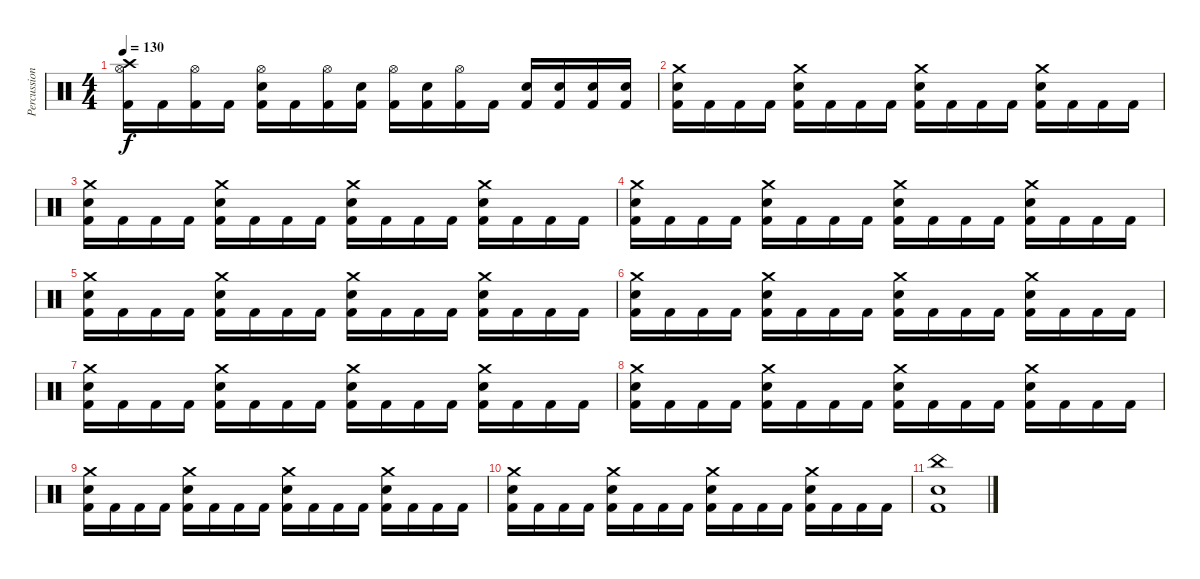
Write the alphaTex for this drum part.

\track ("Percussions" "Percussion") {instrument percussion}
\staff {score}
\articulation defaults
\ts (4 4)
\tempo 130
\clef neutral
\ks c
("Crash high (hit)" "Hi-Hat (open)" "Kick (hit) 2").16{dy f} "Kick (hit) 2".16 ("Hi-Hat (open)" "Kick (hit) 2").16 "Kick (hit) 2".16 ("Electric Snare (hit)" "Hi-Hat (open)" "Kick (hit) 2").16 "Kick (hit) 2".16 ("Hi-Hat (open)" "Kick (hit) 2").16 ("Electric Snare (hit)" "Kick (hit) 2").16 ("Hi-Hat (open)" "Kick (hit) 2").16 ("Electric Snare (hit)" "Kick (hit) 2").16 ("Hi-Hat (open)" "Kick (hit) 2").16 "Kick (hit) 2".16 ("Electric Snare (hit)" "Kick (hit) 2").16 ("Electric Snare (hit)" "Kick (hit) 2").16 ("Electric Snare (hit)" "Kick (hit) 2").16 ("Electric Snare (hit)" "Kick (hit) 2").16 |
("Electric Snare (hit)" "Crash medium (hit)" "Kick (hit) 2").16 "Kick (hit) 2".16 "Kick (hit) 2".16 "Kick (hit) 2".16 ("Electric Snare (hit)" "Crash medium (hit)" "Kick (hit) 2").16 "Kick (hit) 2".16 "Kick (hit) 2".16 "Kick (hit) 2".16 ("Electric Snare (hit)" "Crash medium (hit)" "Kick (hit) 2").16 "Kick (hit) 2".16 "Kick (hit) 2".16 "Kick (hit) 2".16 ("Electric Snare (hit)" "Crash medium (hit)" "Kick (hit) 2").16 "Kick (hit) 2".16 "Kick (hit) 2".16 "Kick (hit) 2".16 |
("Electric Snare (hit)" "Crash medium (hit)" "Kick (hit) 2").16 "Kick (hit) 2".16 "Kick (hit) 2".16 "Kick (hit) 2".16 ("Electric Snare (hit)" "Crash medium (hit)" "Kick (hit) 2").16 "Kick (hit) 2".16 "Kick (hit) 2".16 "Kick (hit) 2".16 ("Electric Snare (hit)" "Crash medium (hit)" "Kick (hit) 2").16 "Kick (hit) 2".16 "Kick (hit) 2".16 "Kick (hit) 2".16 ("Electric Snare (hit)" "Crash medium (hit)" "Kick (hit) 2").16 "Kick (hit) 2".16 "Kick (hit) 2".16 "Kick (hit) 2".16 |
("Electric Snare (hit)" "Crash medium (hit)" "Kick (hit) 2").16 "Kick (hit) 2".16 "Kick (hit) 2".16 "Kick (hit) 2".16 ("Electric Snare (hit)" "Crash medium (hit)" "Kick (hit) 2").16 "Kick (hit) 2".16 "Kick (hit) 2".16 "Kick (hit) 2".16 ("Electric Snare (hit)" "Crash medium (hit)" "Kick (hit) 2").16 "Kick (hit) 2".16 "Kick (hit) 2".16 "Kick (hit) 2".16 ("Electric Snare (hit)" "Crash medium (hit)" "Kick (hit) 2").16 "Kick (hit) 2".16 "Kick (hit) 2".16 "Kick (hit) 2".16 |
("Electric Snare (hit)" "Crash medium (hit)" "Kick (hit) 2").16 "Kick (hit) 2".16 "Kick (hit) 2".16 "Kick (hit) 2".16 ("Electric Snare (hit)" "Crash medium (hit)" "Kick (hit) 2").16 "Kick (hit) 2".16 "Kick (hit) 2".16 "Kick (hit) 2".16 ("Electric Snare (hit)" "Crash medium (hit)" "Kick (hit) 2").16 "Kick (hit) 2".16 "Kick (hit) 2".16 "Kick (hit) 2".16 ("Electric Snare (hit)" "Crash medium (hit)" "Kick (hit) 2").16 "Kick (hit) 2".16 "Kick (hit) 2".16 "Kick (hit) 2".16 |
("Electric Snare (hit)" "Crash medium (hit)" "Kick (hit) 2").16 "Kick (hit) 2".16 "Kick (hit) 2".16 "Kick (hit) 2".16 ("Electric Snare (hit)" "Crash medium (hit)" "Kick (hit) 2").16 "Kick (hit) 2".16 "Kick (hit) 2".16 "Kick (hit) 2".16 ("Electric Snare (hit)" "Crash medium (hit)" "Kick (hit) 2").16 "Kick (hit) 2".16 "Kick (hit) 2".16 "Kick (hit) 2".16 ("Electric Snare (hit)" "Crash medium (hit)" "Kick (hit) 2").16 "Kick (hit) 2".16 "Kick (hit) 2".16 "Kick (hit) 2".16 |
("Electric Snare (hit)" "Crash medium (hit)" "Kick (hit) 2").16 "Kick (hit) 2".16 "Kick (hit) 2".16 "Kick (hit) 2".16 ("Electric Snare (hit)" "Crash medium (hit)" "Kick (hit) 2").16 "Kick (hit) 2".16 "Kick (hit) 2".16 "Kick (hit) 2".16 ("Electric Snare (hit)" "Crash medium (hit)" "Kick (hit) 2").16 "Kick (hit) 2".16 "Kick (hit) 2".16 "Kick (hit) 2".16 ("Electric Snare (hit)" "Crash medium (hit)" "Kick (hit) 2").16 "Kick (hit) 2".16 "Kick (hit) 2".16 "Kick (hit) 2".16 |
("Electric Snare (hit)" "Crash medium (hit)" "Kick (hit) 2").16 "Kick (hit) 2".16 "Kick (hit) 2".16 "Kick (hit) 2".16 ("Electric Snare (hit)" "Crash medium (hit)" "Kick (hit) 2").16 "Kick (hit) 2".16 "Kick (hit) 2".16 "Kick (hit) 2".16 ("Electric Snare (hit)" "Crash medium (hit)" "Kick (hit) 2").16 "Kick (hit) 2".16 "Kick (hit) 2".16 "Kick (hit) 2".16 ("Electric Snare (hit)" "Crash medium (hit)" "Kick (hit) 2").16 "Kick (hit) 2".16 "Kick (hit) 2".16 "Kick (hit) 2".16 |
("Electric Snare (hit)" "Crash medium (hit)" "Kick (hit) 2").16 "Kick (hit) 2".16 "Kick (hit) 2".16 "Kick (hit) 2".16 ("Electric Snare (hit)" "Crash medium (hit)" "Kick (hit) 2").16 "Kick (hit) 2".16 "Kick (hit) 2".16 "Kick (hit) 2".16 ("Electric Snare (hit)" "Crash medium (hit)" "Kick (hit) 2").16 "Kick (hit) 2".16 "Kick (hit) 2".16 "Kick (hit) 2".16 ("Electric Snare (hit)" "Crash medium (hit)" "Kick (hit) 2").16 "Kick (hit) 2".16 "Kick (hit) 2".16 "Kick (hit) 2".16 |
("Electric Snare (hit)" "Crash medium (hit)" "Kick (hit) 2").16 "Kick (hit) 2".16 "Kick (hit) 2".16 "Kick (hit) 2".16 ("Electric Snare (hit)" "Crash medium (hit)" "Kick (hit) 2").16 "Kick (hit) 2".16 "Kick (hit) 2".16 "Kick (hit) 2".16 ("Electric Snare (hit)" "Crash medium (hit)" "Kick (hit) 2").16 "Kick (hit) 2".16 "Kick (hit) 2".16 "Kick (hit) 2".16 ("Electric Snare (hit)" "Crash medium (hit)" "Kick (hit) 2").16 "Kick (hit) 2".16 "Kick (hit) 2".16 "Kick (hit) 2".16 |
("China (hit)" "Electric Snare (hit)" "Kick (hit) 2").1
